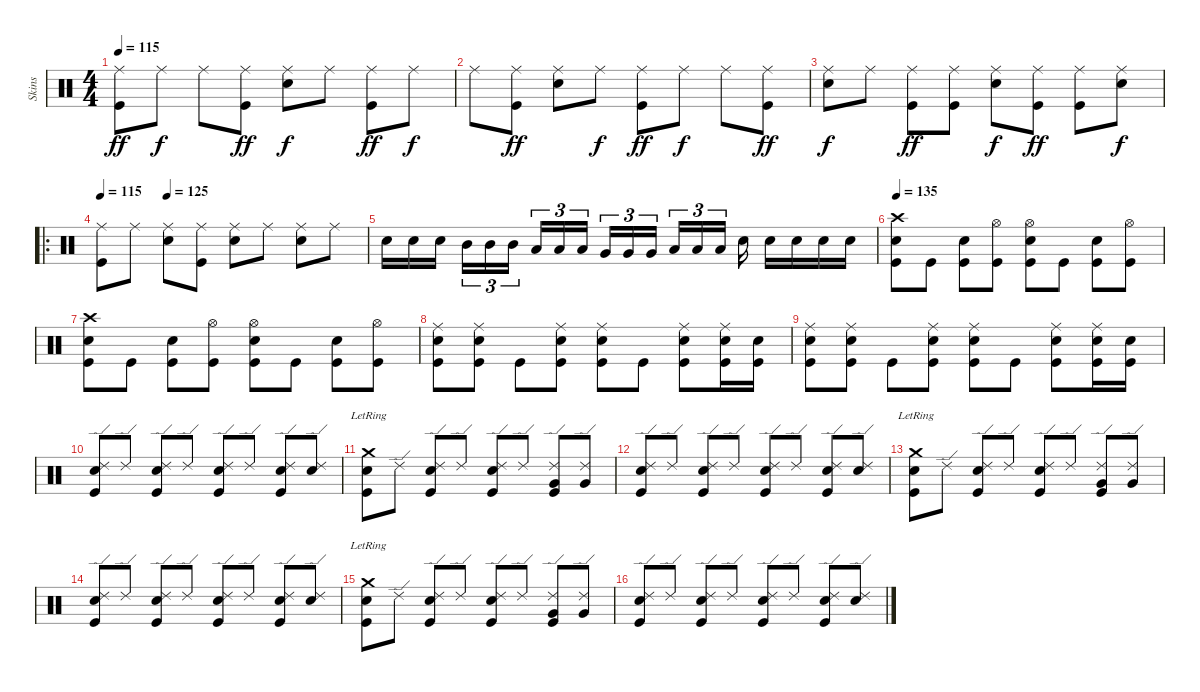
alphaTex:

\track ("Skins" "Skins") {instrument percussion}
\staff {score}
\articulation defaults
\ts (4 4)
\tempo 115
\clef neutral
\ks c
("Ride (middle)" "Kick (hit)").8{dy ff} "Ride (middle)".8{dy f} "Ride (middle)".8 ("Ride (middle)" "Kick (hit)").8{dy ff} ("Ride (middle)" "Electric Snare (hit)").8{dy f} "Ride (middle)".8 ("Ride (middle)" "Kick (hit)").8{dy ff} "Ride (middle)".8{dy f} |
"Ride (middle)".8 ("Ride (middle)" "Kick (hit)").8{dy ff} ("Ride (middle)" "Electric Snare (hit)").8 "Ride (middle)".8{dy f} ("Ride (middle)" "Kick (hit)").8{dy ff} "Ride (middle)".8{dy f} "Ride (middle)".8 ("Ride (middle)" "Kick (hit)").8{dy ff} |
("Ride (middle)" "Electric Snare (hit)").8{dy f} "Ride (middle)".8 ("Ride (middle)" "Kick (hit)").8{dy ff} ("Ride (middle)" "Kick (hit)").8 ("Ride (middle)" "Electric Snare (hit)").8{dy f} ("Ride (middle)" "Kick (hit)").8{dy ff} ("Ride (middle)" "Kick (hit)").8 ("Ride (middle)" "Electric Snare (hit)").8{dy f} |
\ro
\tempo 115
\tempo (125 0.25)
("Ride (middle)" "Kick (hit)").8 "Ride (middle)".8 ("Ride (middle)" "Electric Snare (hit)").8 ("Ride (middle)" "Kick (hit)").8 ("Ride (middle)" "Electric Snare (hit)").8 "Ride (middle)".8 ("Ride (middle)" "Electric Snare (hit)").8 "Ride (middle)".8 |
"Electric Snare (hit)".16 "Electric Snare (hit)".16 "Electric Snare (hit)".16 "Mid Tom (hit)".16{tu (3 2)} "Mid Tom (hit)".16{tu (3 2)} "Mid Tom (hit)".16{tu (3 2)} "Low Tom (hit)".16{tu (3 2)} "Low Tom (hit)".16{tu (3 2)} "Low Tom (hit)".16{tu (3 2)} "Very Low Tom (hit)".16{tu (3 2)} "Very Low Tom (hit)".16{tu (3 2)} "Very Low Tom (hit)".16{tu (3 2)} "Low Floor Tom (hit)".16{tu (3 2)} "Low Floor Tom (hit)".16{tu (3 2)} "Low Floor Tom (hit)".16{tu (3 2)} "Snare (hit) 2".16 "Snare (hit) 2".16 "Electric Snare (hit)".16 "Electric Snare (hit)".16 "Snare (hit) 2".16 |
\tempo 135
("Crash high (hit)" "Electric Snare (hit)" "Kick (hit)").8 "Kick (hit)".8 ("Electric Snare (hit)" "Kick (hit)").8 ("Hi-Hat (open)" "Kick (hit)").8 ("Hi-Hat (open)" "Electric Snare (hit)" "Kick (hit)").8 "Kick (hit)".8 ("Electric Snare (hit)" "Kick (hit)").8 ("Hi-Hat (open)" "Kick (hit)").8 |
("Crash high (hit)" "Electric Snare (hit)" "Kick (hit)").8 "Kick (hit)".8 ("Electric Snare (hit)" "Kick (hit)").8 ("Hi-Hat (open)" "Kick (hit)").8 ("Hi-Hat (open)" "Electric Snare (hit)" "Kick (hit)").8 "Kick (hit)".8 ("Electric Snare (hit)" "Kick (hit)").8 ("Hi-Hat (open)" "Kick (hit)").8 |
("Ride (middle)" "Snare (hit) 2" "Kick (hit)").8 ("Ride (middle)" "Snare (hit) 2" "Kick (hit)").8 "Kick (hit)".8 ("Ride (middle)" "Snare (hit) 2" "Kick (hit)").8 ("Ride (middle)" "Snare (hit) 2" "Kick (hit)").8 "Kick (hit)".8 ("Ride (middle)" "Snare (hit) 2" "Kick (hit)").8 ("Ride (middle)" "Snare (hit) 2" "Kick (hit)").16 ("Snare (hit) 2" "Kick (hit)").16 |
("Ride (middle)" "Snare (hit) 2" "Kick (hit)").8 ("Ride (middle)" "Snare (hit) 2" "Kick (hit)").8 "Kick (hit)".8 ("Ride (middle)" "Snare (hit) 2" "Kick (hit)").8 ("Ride (middle)" "Snare (hit) 2" "Kick (hit)").8 "Kick (hit)".8 ("Ride (middle)" "Snare (hit) 2" "Kick (hit)").8 ("Ride (middle)" "Snare (hit) 2" "Kick (hit)").16 ("Snare (hit) 2" "Kick (hit)").16 |
("Ride (edge) 2" "Electric Snare (hit)" "Kick (hit)").8 "Ride (edge) 2".8 ("Ride (edge) 2" "Electric Snare (hit)" "Kick (hit)").8 "Ride (edge) 2".8 ("Ride (edge) 2" "Electric Snare (hit)" "Kick (hit)").8 "Ride (edge) 2".8 ("Ride (edge) 2" "Snare (hit) 2" "Kick (hit)").8 ("Ride (edge) 2" "Snare (hit) 2").8 |
("Crash medium (hit)"{lr} "Electric Snare (hit)" "Kick (hit)").8 "Ride (edge) 2".8 ("Ride (edge) 2" "Electric Snare (hit)" "Kick (hit)").8 "Ride (edge) 2".8 ("Ride (edge) 2" "Electric Snare (hit)" "Kick (hit)").8 "Ride (edge) 2".8 ("Ride (edge) 2" "Very Low Tom (hit)" "Kick (hit)").8 ("Ride (edge) 2" "Very Low Tom (hit)").8 |
("Ride (edge) 2" "Electric Snare (hit)" "Kick (hit)").8 "Ride (edge) 2".8 ("Ride (edge) 2" "Electric Snare (hit)" "Kick (hit)").8 "Ride (edge) 2".8 ("Ride (edge) 2" "Electric Snare (hit)" "Kick (hit)").8 "Ride (edge) 2".8 ("Ride (edge) 2" "Snare (hit) 2" "Kick (hit)").8 ("Ride (edge) 2" "Snare (hit) 2").8 |
("Crash medium (hit)"{lr} "Electric Snare (hit)" "Kick (hit)").8 "Ride (edge) 2".8 ("Ride (edge) 2" "Electric Snare (hit)" "Kick (hit)").8 "Ride (edge) 2".8 ("Ride (edge) 2" "Electric Snare (hit)" "Kick (hit)").8 "Ride (edge) 2".8 ("Ride (edge) 2" "Very Low Tom (hit)" "Kick (hit)").8 ("Ride (edge) 2" "Very Low Tom (hit)").8 |
("Ride (edge) 2" "Electric Snare (hit)" "Kick (hit)").8 "Ride (edge) 2".8 ("Ride (edge) 2" "Electric Snare (hit)" "Kick (hit)").8 "Ride (edge) 2".8 ("Ride (edge) 2" "Electric Snare (hit)" "Kick (hit)").8 "Ride (edge) 2".8 ("Ride (edge) 2" "Snare (hit) 2" "Kick (hit)").8 ("Ride (edge) 2" "Snare (hit) 2").8 |
("Crash medium (hit)"{lr} "Electric Snare (hit)" "Kick (hit)").8 "Ride (edge) 2".8 ("Ride (edge) 2" "Electric Snare (hit)" "Kick (hit)").8 "Ride (edge) 2".8 ("Ride (edge) 2" "Electric Snare (hit)" "Kick (hit)").8 "Ride (edge) 2".8 ("Ride (edge) 2" "Very Low Tom (hit)" "Kick (hit)").8 ("Ride (edge) 2" "Very Low Tom (hit)").8 |
("Ride (edge) 2" "Electric Snare (hit)" "Kick (hit)").8 "Ride (edge) 2".8 ("Ride (edge) 2" "Electric Snare (hit)" "Kick (hit)").8 "Ride (edge) 2".8 ("Ride (edge) 2" "Electric Snare (hit)" "Kick (hit)").8 "Ride (edge) 2".8 ("Ride (edge) 2" "Snare (hit) 2" "Kick (hit)").8 ("Ride (edge) 2" "Snare (hit) 2").8
